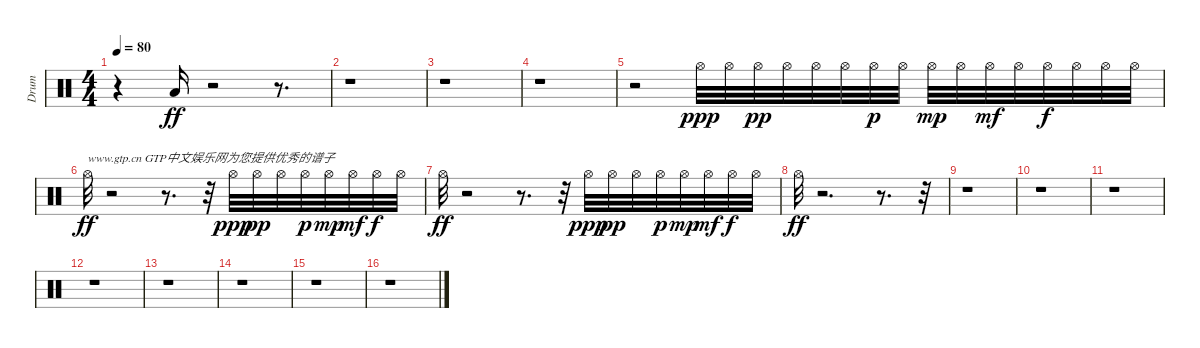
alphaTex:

\track ("Drum" "Drum") {instrument percussion}
\staff {score}
\articulation defaults
\ts (4 4)
\tempo 80
\clef neutral
\ks c
r.4{dy ff} "Low Floor Tom (hit)".16 r.2 r.8{d} |
r.1 |
r.1 |
r.1 |
r.2 "Hi-Hat (open)".32{dy ppp} "Hi-Hat (open)".32 "Hi-Hat (open)".32{dy pp} "Hi-Hat (open)".32 "Hi-Hat (open)".32 "Hi-Hat (open)".32 "Hi-Hat (open)".32{dy p} "Hi-Hat (open)".32 "Hi-Hat (open)".32{dy mp} "Hi-Hat (open)".32 "Hi-Hat (open)".32{dy mf} "Hi-Hat (open)".32 "Hi-Hat (open)".32{dy f} "Hi-Hat (open)".32 "Hi-Hat (open)".32 "Hi-Hat (open)".32 |
"Hi-Hat (open)".32{txt "www.gtp.cn GTP中文娱乐网为您提供优秀的谱子" dy ff} r.2 r.8{d} r.32 "Hi-Hat (open)".32{dy ppp} "Hi-Hat (open)".32{dy pp} "Hi-Hat (open)".32 "Hi-Hat (open)".32{dy p} "Hi-Hat (open)".32{dy mp} "Hi-Hat (open)".32{dy mf} "Hi-Hat (open)".32{dy f} "Hi-Hat (open)".32 |
"Hi-Hat (open)".32{dy ff} r.2 r.8{d} r.32 "Hi-Hat (open)".32{dy ppp} "Hi-Hat (open)".32{dy pp} "Hi-Hat (open)".32 "Hi-Hat (open)".32{dy p} "Hi-Hat (open)".32{dy mp} "Hi-Hat (open)".32{dy mf} "Hi-Hat (open)".32{dy f} "Hi-Hat (open)".32 |
"Hi-Hat (open)".32{dy ff} r.2{d} r.8{d} r.32 |
r.1 |
r.1 |
r.1 |
r.1 |
r.1 |
r.1 |
r.1 |
r.1
